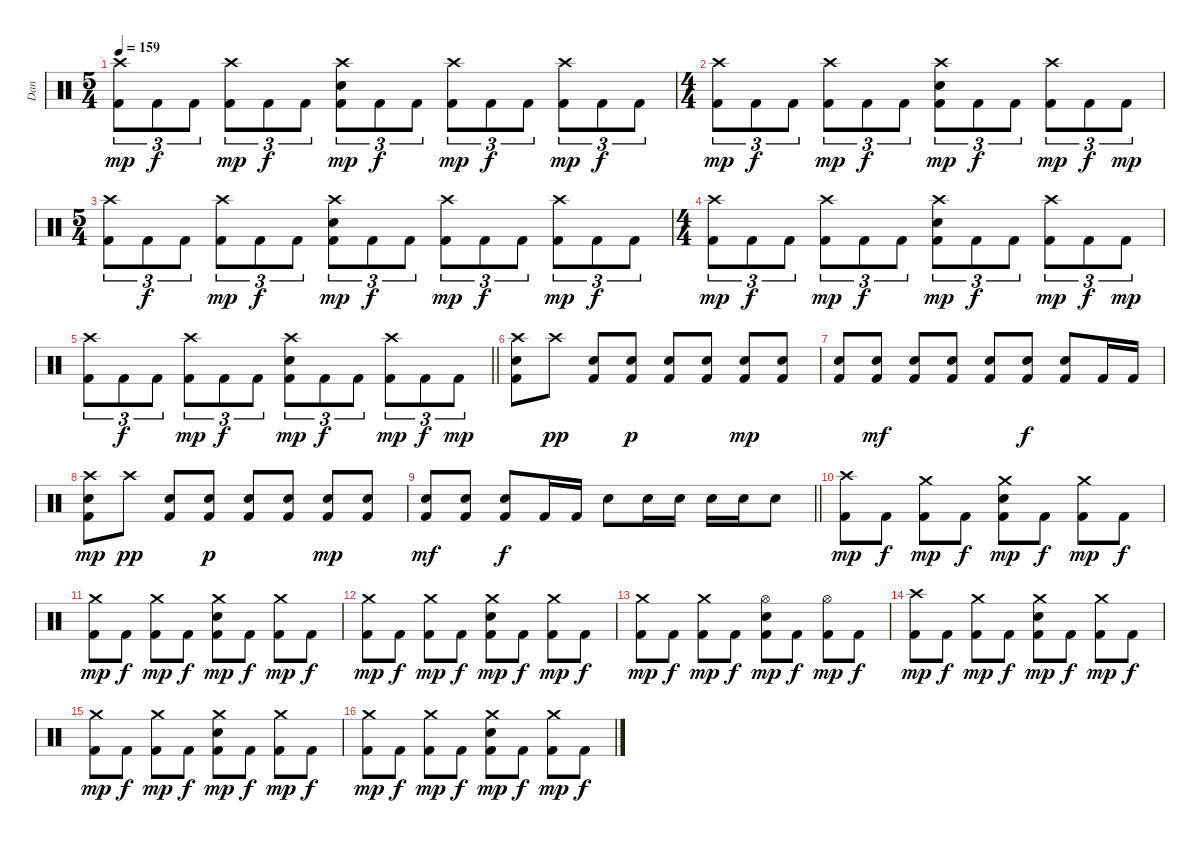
\track ("Dan" "Dan") {instrument percussion}
\staff {score}
\articulation defaults
\ts (5 4)
\tempo 159
\clef neutral
\ks c
("Crash high (hit)" "Kick (hit) 2").8{tu (3 2) dy mp} "Kick (hit) 2".8{tu (3 2) dy f} "Kick (hit) 2".8{tu (3 2)} ("Crash high (hit)" "Kick (hit) 2").8{tu (3 2) dy mp} "Kick (hit) 2".8{tu (3 2) dy f} "Kick (hit) 2".8{tu (3 2)} ("Crash high (hit)" "Snare (hit) 2" "Kick (hit) 2").8{tu (3 2) dy mp} "Kick (hit) 2".8{tu (3 2) dy f} "Kick (hit) 2".8{tu (3 2)} ("Crash high (hit)" "Kick (hit) 2").8{tu (3 2) dy mp} "Kick (hit) 2".8{tu (3 2) dy f} "Kick (hit) 2".8{tu (3 2)} ("Crash high (hit)" "Kick (hit) 2").8{tu (3 2) dy mp} "Kick (hit) 2".8{tu (3 2) dy f} "Kick (hit) 2".8{tu (3 2)} |
\ts (4 4)
("Crash high (hit)" "Kick (hit) 2").8{tu (3 2) dy mp} "Kick (hit) 2".8{tu (3 2) dy f} "Kick (hit) 2".8{tu (3 2)} ("Crash high (hit)" "Kick (hit) 2").8{tu (3 2) dy mp} "Kick (hit) 2".8{tu (3 2) dy f} "Kick (hit) 2".8{tu (3 2)} ("Crash high (hit)" "Snare (hit) 2" "Kick (hit) 2").8{tu (3 2) dy mp} "Kick (hit) 2".8{tu (3 2) dy f} "Kick (hit) 2".8{tu (3 2)} ("Crash high (hit)" "Kick (hit) 2").8{tu (3 2) dy mp} "Kick (hit) 2".8{tu (3 2) dy f} "Kick (hit) 2".8{tu (3 2) dy mp} |
\ts (5 4)
("Crash high (hit)" "Kick (hit) 2").8{tu (3 2)} "Kick (hit) 2".8{tu (3 2) dy f} "Kick (hit) 2".8{tu (3 2)} ("Crash high (hit)" "Kick (hit) 2").8{tu (3 2) dy mp} "Kick (hit) 2".8{tu (3 2) dy f} "Kick (hit) 2".8{tu (3 2)} ("Crash high (hit)" "Snare (hit) 2" "Kick (hit) 2").8{tu (3 2) dy mp} "Kick (hit) 2".8{tu (3 2) dy f} "Kick (hit) 2".8{tu (3 2)} ("Crash high (hit)" "Kick (hit) 2").8{tu (3 2) dy mp} "Kick (hit) 2".8{tu (3 2) dy f} "Kick (hit) 2".8{tu (3 2)} ("Crash high (hit)" "Kick (hit) 2").8{tu (3 2) dy mp} "Kick (hit) 2".8{tu (3 2) dy f} "Kick (hit) 2".8{tu (3 2)} |
\ts (4 4)
("Crash high (hit)" "Kick (hit) 2").8{tu (3 2) dy mp} "Kick (hit) 2".8{tu (3 2) dy f} "Kick (hit) 2".8{tu (3 2)} ("Crash high (hit)" "Kick (hit) 2").8{tu (3 2) dy mp} "Kick (hit) 2".8{tu (3 2) dy f} "Kick (hit) 2".8{tu (3 2)} ("Crash high (hit)" "Snare (hit) 2" "Kick (hit) 2").8{tu (3 2) dy mp} "Kick (hit) 2".8{tu (3 2) dy f} "Kick (hit) 2".8{tu (3 2)} ("Crash high (hit)" "Kick (hit) 2").8{tu (3 2) dy mp} "Kick (hit) 2".8{tu (3 2) dy f} "Kick (hit) 2".8{tu (3 2) dy mp} |
\barLineRight lightlight
("Crash high (hit)" "Kick (hit) 2").8{tu (3 2)} "Kick (hit) 2".8{tu (3 2) dy f} "Kick (hit) 2".8{tu (3 2)} ("Crash high (hit)" "Kick (hit) 2").8{tu (3 2) dy mp} "Kick (hit) 2".8{tu (3 2) dy f} "Kick (hit) 2".8{tu (3 2)} ("Crash high (hit)" "Snare (hit) 2" "Kick (hit) 2").8{tu (3 2) dy mp} "Kick (hit) 2".8{tu (3 2) dy f} "Kick (hit) 2".8{tu (3 2)} ("Crash high (hit)" "Kick (hit) 2").8{tu (3 2) dy mp} "Kick (hit) 2".8{tu (3 2) dy f} "Kick (hit) 2".8{tu (3 2) dy mp} |
("Crash high (hit)" "Snare (hit) 2" "Kick (hit) 2").8 "Crash high (hit)".8{dy pp} ("Snare (hit) 2" "Kick (hit) 2").8 ("Snare (hit) 2" "Kick (hit) 2").8{dy p} ("Snare (hit) 2" "Kick (hit) 2").8 ("Snare (hit) 2" "Kick (hit) 2").8 ("Snare (hit) 2" "Kick (hit) 2").8{dy mp} ("Snare (hit) 2" "Kick (hit) 2").8 |
("Snare (hit) 2" "Kick (hit) 2").8 ("Snare (hit) 2" "Kick (hit) 2").8{dy mf} ("Snare (hit) 2" "Kick (hit) 2").8 ("Snare (hit) 2" "Kick (hit) 2").8 ("Snare (hit) 2" "Kick (hit) 2").8 ("Snare (hit) 2" "Kick (hit) 2").8{dy f} ("Snare (hit) 2" "Kick (hit) 2").8 "Kick (hit) 2".16 "Kick (hit) 2".16 |
("Crash high (hit)" "Snare (hit) 2" "Kick (hit) 2").8{dy mp} "Crash high (hit)".8{dy pp} ("Snare (hit) 2" "Kick (hit) 2").8 ("Snare (hit) 2" "Kick (hit) 2").8{dy p} ("Snare (hit) 2" "Kick (hit) 2").8 ("Snare (hit) 2" "Kick (hit) 2").8 ("Snare (hit) 2" "Kick (hit) 2").8{dy mp} ("Snare (hit) 2" "Kick (hit) 2").8 |
\barLineRight lightlight
("Snare (hit) 2" "Kick (hit) 2").8{dy mf} ("Snare (hit) 2" "Kick (hit) 2").8 ("Snare (hit) 2" "Kick (hit) 2").8{dy f} "Kick (hit) 2".16 "Kick (hit) 2".16 "Snare (hit) 2".8 "Snare (hit) 2".16 "Snare (hit) 2".16 "Snare (hit) 2".16 "Snare (hit) 2".16 "Snare (hit) 2".8 |
("Crash high (hit)" "Kick (hit) 2").8{dy mp} "Kick (hit) 2".8{dy f} ("Crash medium (hit)" "Kick (hit) 2").8{dy mp} "Kick (hit) 2".8{dy f} ("Crash medium (hit)" "Snare (hit) 2" "Kick (hit) 2").8{dy mp} "Kick (hit) 2".8{dy f} ("Crash medium (hit)" "Kick (hit) 2").8{dy mp} "Kick (hit) 2".8{dy f} |
("Crash medium (hit)" "Kick (hit) 2").8{dy mp} "Kick (hit) 2".8{dy f} ("Crash medium (hit)" "Kick (hit) 2").8{dy mp} "Kick (hit) 2".8{dy f} ("Crash medium (hit)" "Snare (hit) 2" "Kick (hit) 2").8{dy mp} "Kick (hit) 2".8{dy f} ("Crash medium (hit)" "Kick (hit) 2").8{dy mp} "Kick (hit) 2".8{dy f} |
("Crash medium (hit)" "Kick (hit) 2").8{dy mp} "Kick (hit) 2".8{dy f} ("Crash medium (hit)" "Kick (hit) 2").8{dy mp} "Kick (hit) 2".8{dy f} ("Crash medium (hit)" "Snare (hit) 2" "Kick (hit) 2").8{dy mp} "Kick (hit) 2".8{dy f} ("Crash medium (hit)" "Kick (hit) 2").8{dy mp} "Kick (hit) 2".8{dy f} |
("Crash medium (hit)" "Kick (hit) 2").8{dy mp} "Kick (hit) 2".8{dy f} ("Crash medium (hit)" "Kick (hit) 2").8{dy mp} "Kick (hit) 2".8{dy f} ("Hi-Hat (open)" "Snare (hit) 2" "Kick (hit) 2").8{dy mp} "Kick (hit) 2".8{dy f} ("Hi-Hat (open)" "Kick (hit) 2").8{dy mp} "Kick (hit) 2".8{dy f} |
("Crash high (hit)" "Kick (hit) 2").8{dy mp} "Kick (hit) 2".8{dy f} ("Crash medium (hit)" "Kick (hit) 2").8{dy mp} "Kick (hit) 2".8{dy f} ("Crash medium (hit)" "Snare (hit) 2" "Kick (hit) 2").8{dy mp} "Kick (hit) 2".8{dy f} ("Crash medium (hit)" "Kick (hit) 2").8{dy mp} "Kick (hit) 2".8{dy f} |
("Crash medium (hit)" "Kick (hit) 2").8{dy mp} "Kick (hit) 2".8{dy f} ("Crash medium (hit)" "Kick (hit) 2").8{dy mp} "Kick (hit) 2".8{dy f} ("Crash medium (hit)" "Snare (hit) 2" "Kick (hit) 2").8{dy mp} "Kick (hit) 2".8{dy f} ("Crash medium (hit)" "Kick (hit) 2").8{dy mp} "Kick (hit) 2".8{dy f} |
("Crash medium (hit)" "Kick (hit) 2").8{dy mp} "Kick (hit) 2".8{dy f} ("Crash medium (hit)" "Kick (hit) 2").8{dy mp} "Kick (hit) 2".8{dy f} ("Crash medium (hit)" "Snare (hit) 2" "Kick (hit) 2").8{dy mp} "Kick (hit) 2".8{dy f} ("Crash medium (hit)" "Kick (hit) 2").8{dy mp} "Kick (hit) 2".8{dy f}
